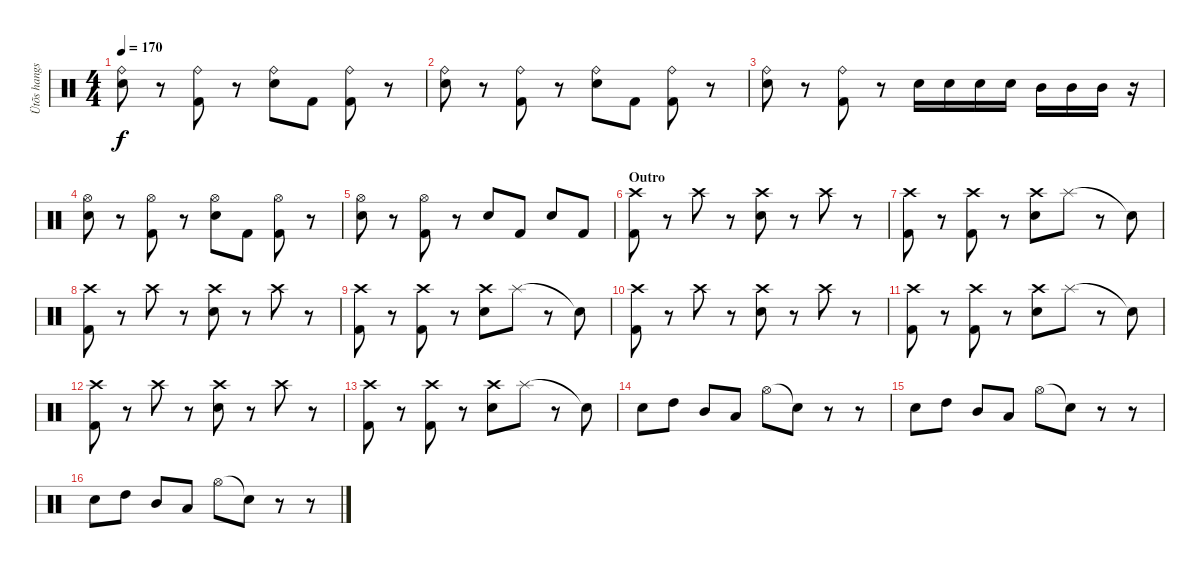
\track ("Ütõs hangszer" "Ütõs hangs") {instrument percussion}
\staff {score}
\articulation defaults
\ts (4 4)
\tempo 170
\clef neutral
\ks c
("Ride (bell)" "Snare (hit) 2").8{dy f} r.8 ("Ride (bell)" "Kick (hit) 2").8 r.8 ("Ride (bell)" "Snare (hit) 2").8 "Kick (hit) 2".8 ("Ride (bell)" "Kick (hit) 2").8 r.8 |
("Ride (bell)" "Snare (hit) 2").8 r.8 ("Ride (bell)" "Kick (hit) 2").8 r.8 ("Ride (bell)" "Snare (hit) 2").8 "Kick (hit) 2".8 ("Ride (bell)" "Kick (hit) 2").8 r.8 |
("Ride (bell)" "Snare (hit) 2").8 r.8 ("Ride (bell)" "Kick (hit) 2").8 r.8 "Snare (hit) 2".16 "Snare (hit) 2".16 "Snare (hit) 2".16 "Snare (hit) 2".16 "Mid Tom (hit)".16 "Mid Tom (hit)".16 "Mid Tom (hit)".16 r.16 |
("Hi-Hat (open)" "Snare (hit) 2").8 r.8 ("Hi-Hat (open)" "Kick (hit) 2").8 r.8 ("Hi-Hat (open)" "Snare (hit) 2").8 "Kick (hit) 2".8 ("Hi-Hat (open)" "Kick (hit) 2").8 r.8 |
("Hi-Hat (open)" "Snare (hit) 2").8 r.8 ("Hi-Hat (open)" "Kick (hit) 2").8 r.8 "Snare (hit) 2".8 "Kick (hit) 2".8 "Snare (hit) 2".8 "Kick (hit) 2".8 |
\section ("" "Outro")
("Crash high (hit)" "Kick (hit) 2").8 r.8 "Crash high (hit)".8 r.8 ("Crash high (hit)" "Snare (hit) 2").8 r.8 "Crash high (hit)".8 r.8 |
("Crash high (hit)" "Kick (hit) 2").8 r.8 ("Crash high (hit)" "Kick (hit) 2").8 r.8 ("Crash high (hit)" "Snare (hit) 2").8 "Splash (hit)".8 r.8 "Snare (hit)"{t}.8 |
("Crash high (hit)" "Kick (hit) 2").8 r.8 "Crash high (hit)".8 r.8 ("Crash high (hit)" "Snare (hit) 2").8 r.8 "Crash high (hit)".8 r.8 |
("Crash high (hit)" "Kick (hit) 2").8 r.8 ("Crash high (hit)" "Kick (hit) 2").8 r.8 ("Crash high (hit)" "Snare (hit) 2").8 "Splash (hit)".8 r.8 "Snare (hit)"{t}.8 |
("Crash high (hit)" "Kick (hit) 2").8 r.8 "Crash high (hit)".8 r.8 ("Crash high (hit)" "Snare (hit) 2").8 r.8 "Crash high (hit)".8 r.8 |
("Crash high (hit)" "Kick (hit) 2").8 r.8 ("Crash high (hit)" "Kick (hit) 2").8 r.8 ("Crash high (hit)" "Snare (hit) 2").8 "Splash (hit)".8 r.8 "Snare (hit)"{t}.8 |
("Crash high (hit)" "Kick (hit) 2").8 r.8 "Crash high (hit)".8 r.8 ("Crash high (hit)" "Snare (hit) 2").8 r.8 "Crash high (hit)".8 r.8 |
("Crash high (hit)" "Kick (hit) 2").8 r.8 ("Crash high (hit)" "Kick (hit) 2").8 r.8 ("Crash high (hit)" "Snare (hit) 2").8 "Splash (hit)".8 r.8 "Snare (hit)"{t}.8 |
"Snare (hit) 2".8 "High Tom (hit)".8 "Mid Tom (hit)".8 "Low Tom (hit)".8 "Hi-Hat (open)".8 "Snare (hit)"{t}.8 r.8 r.8 |
"Snare (hit) 2".8 "High Tom (hit)".8 "Mid Tom (hit)".8 "Low Tom (hit)".8 "Hi-Hat (open)".8 "Snare (hit)"{t}.8 r.8 r.8 |
"Snare (hit) 2".8 "High Tom (hit)".8 "Mid Tom (hit)".8 "Low Tom (hit)".8 "Hi-Hat (open)".8 "Snare (hit)"{t}.8 r.8 r.8
